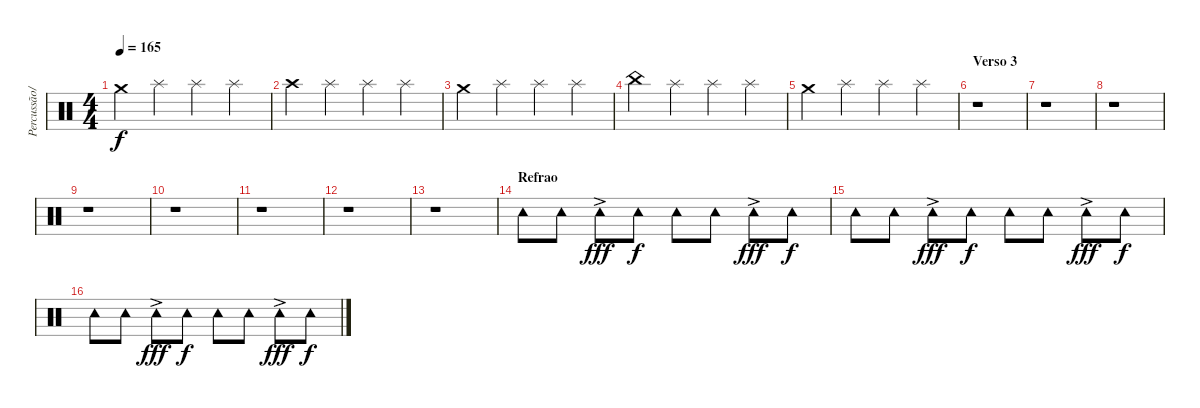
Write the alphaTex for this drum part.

\track ("Percussão/DJ" "Percussão/") {instrument percussion}
\staff {score}
\articulation defaults
\ts (4 4)
\tempo 165
\clef neutral
\ks c "Crash medium (hit)".4{dy f} "Splash (hit)".4 "Splash (hit)".4 "Splash (hit)".4
|
"Crash high (hit)".4 "Splash (hit)".4 "Splash (hit)".4 "Splash (hit)".4 |
"Crash medium (hit)".4 "Splash (hit)".4 "Splash (hit)".4 "Splash (hit)".4 |
"China (hit)".4 "Splash (hit)".4 "Splash (hit)".4 "Splash (hit)".4 |
"Crash medium (hit)".4 "Splash (hit)".4 "Splash (hit)".4 "Splash (hit)".4 |
\section ("" "Verso 3")
r.1 |
r.1 |
r.1 |
r.1 |
r.1 |
r.1 |
r.1 |
r.1 |
\section ("" "Refrao")
"Tambourine (hit)".8 "Tambourine (hit)".8 "Tambourine (hit)"{ac}.8{dy fff} "Tambourine (hit)".8{dy f} "Tambourine (hit)".8 "Tambourine (hit)".8 "Tambourine (hit)"{ac}.8{dy fff} "Tambourine (hit)".8{dy f} |
"Tambourine (hit)".8 "Tambourine (hit)".8 "Tambourine (hit)"{ac}.8{dy fff} "Tambourine (hit)".8{dy f} "Tambourine (hit)".8 "Tambourine (hit)".8 "Tambourine (hit)"{ac}.8{dy fff} "Tambourine (hit)".8{dy f} |
"Tambourine (hit)".8 "Tambourine (hit)".8 "Tambourine (hit)"{ac}.8{dy fff} "Tambourine (hit)".8{dy f} "Tambourine (hit)".8 "Tambourine (hit)".8 "Tambourine (hit)"{ac}.8{dy fff} "Tambourine (hit)".8{dy f}
